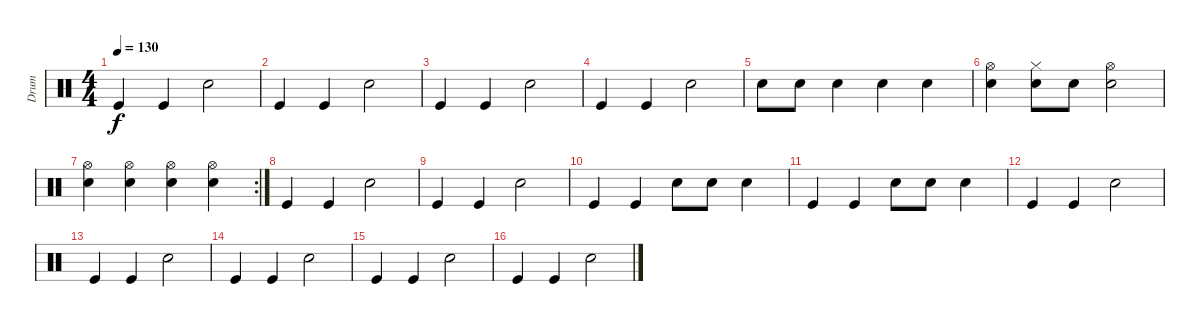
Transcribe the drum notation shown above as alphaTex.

\track ("Drum" "Drum") {instrument percussion}
\staff {score}
\articulation defaults
\ts (4 4)
\tempo 130
\clef neutral
\ks c "Kick (hit)".4{dy f} "Kick (hit)".4 "Snare (hit) 2".2
|
"Kick (hit)".4 "Kick (hit)".4 "Snare (hit) 2".2 |
"Kick (hit)".4 "Kick (hit)".4 "Snare (hit) 2".2 |
"Kick (hit)".4 "Kick (hit)".4 "Snare (hit) 2".2 |
"Snare (hit) 2".8 "Snare (hit) 2".8 "Snare (hit) 2".4 "Snare (hit) 2".4 "Snare (hit) 2".4 |
("Snare (hit) 2" "Hi-Hat (open)").4 ("Hi-Hat (closed)" "Snare (hit) 2").8 "Snare (hit) 2".8 ("Snare (hit) 2" "Hi-Hat (open)").2 |
\rc 2
("Snare (hit) 2" "Hi-Hat (open)").4 ("Snare (hit) 2" "Hi-Hat (open)").4 ("Snare (hit) 2" "Hi-Hat (open)").4 ("Snare (hit) 2" "Hi-Hat (open)").4 |
"Kick (hit)".4 "Kick (hit)".4 "Snare (hit) 2".2 |
"Kick (hit)".4 "Kick (hit)".4 "Snare (hit) 2".2 |
"Kick (hit)".4 "Kick (hit)".4 "Snare (hit) 2".8 "Snare (hit) 2".8 "Snare (hit) 2".4 |
"Kick (hit)".4 "Kick (hit)".4 "Snare (hit) 2".8 "Snare (hit) 2".8 "Snare (hit) 2".4 |
"Kick (hit)".4 "Kick (hit)".4 "Snare (hit) 2".2 |
"Kick (hit)".4 "Kick (hit)".4 "Snare (hit) 2".2 |
"Kick (hit)".4 "Kick (hit)".4 "Snare (hit) 2".2 |
"Kick (hit)".4 "Kick (hit)".4 "Snare (hit) 2".2 |
"Kick (hit)".4 "Kick (hit)".4 "Snare (hit) 2".2
